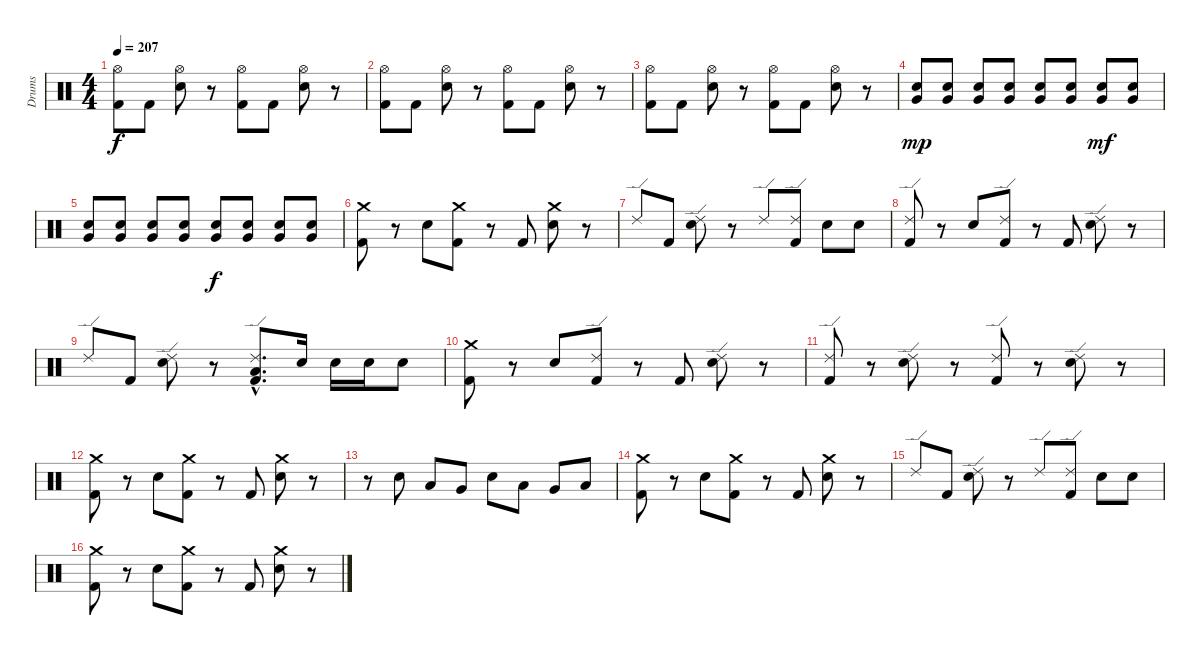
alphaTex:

\track ("Drums" "Drums") {instrument percussion}
\staff {score}
\articulation defaults
\ts (4 4)
\tempo 207
\clef neutral
\ks c
("Hi-Hat (open)" "Kick (hit) 2").8{dy f} "Kick (hit) 2".8 ("Hi-Hat (open)" "Snare (hit) 2").8 r.8 ("Hi-Hat (open)" "Kick (hit) 2").8 "Kick (hit) 2".8 ("Hi-Hat (open)" "Snare (hit) 2").8 r.8 |
("Hi-Hat (open)" "Kick (hit) 2").8 "Kick (hit) 2".8 ("Hi-Hat (open)" "Snare (hit) 2").8 r.8 ("Hi-Hat (open)" "Kick (hit) 2").8 "Kick (hit) 2".8 ("Hi-Hat (open)" "Snare (hit) 2").8 r.8 |
("Hi-Hat (open)" "Kick (hit) 2").8 "Kick (hit) 2".8 ("Hi-Hat (open)" "Snare (hit) 2").8 r.8 ("Hi-Hat (open)" "Kick (hit) 2").8 "Kick (hit) 2".8 ("Hi-Hat (open)" "Snare (hit) 2").8 r.8 |
("Snare (hit) 2" "Very Low Tom (hit)").8{dy mp} ("Snare (hit) 2" "Very Low Tom (hit)").8 ("Snare (hit) 2" "Very Low Tom (hit)").8 ("Snare (hit) 2" "Very Low Tom (hit)").8 ("Snare (hit) 2" "Very Low Tom (hit)").8 ("Snare (hit) 2" "Very Low Tom (hit)").8 ("Snare (hit) 2" "Very Low Tom (hit)").8{dy mf} ("Snare (hit) 2" "Very Low Tom (hit)").8 |
("Snare (hit) 2" "Very Low Tom (hit)").8 ("Snare (hit) 2" "Very Low Tom (hit)").8 ("Snare (hit) 2" "Very Low Tom (hit)").8 ("Snare (hit) 2" "Very Low Tom (hit)").8 ("Snare (hit) 2" "Very Low Tom (hit)").8{dy f} ("Snare (hit) 2" "Very Low Tom (hit)").8 ("Snare (hit) 2" "Very Low Tom (hit)").8 ("Snare (hit) 2" "Very Low Tom (hit)").8 |
("Crash medium (hit)" "Kick (hit) 2").8 r.8 "Snare (hit) 2".8 ("Crash medium (hit)" "Kick (hit) 2").8 r.8 "Kick (hit) 2".8 ("Crash medium (hit)" "Snare (hit) 2").8 r.8 |
"Ride (edge) 2".8 "Kick (hit) 2".8 ("Ride (edge) 2" "Snare (hit) 2").8 r.8 "Ride (edge) 2".8 ("Ride (edge) 2" "Kick (hit) 2").8 "Snare (hit) 2".8 "Snare (hit) 2".8 |
("Ride (edge) 2" "Kick (hit) 2").8 r.8 "Snare (hit) 2".8 ("Ride (edge) 2" "Kick (hit) 2").8 r.8 "Kick (hit) 2".8 ("Ride (edge) 2" "Snare (hit) 2").8 r.8 |
"Ride (edge) 2".8 "Kick (hit) 2".8 ("Ride (edge) 2" "Snare (hit) 2").8 r.8 ("Ride (edge) 2"{hac} "Low Tom (hit)"{hac} "Kick (hit) 2"{hac}).8{d} "Snare (hit) 2".16 "Snare (hit) 2".16 "Snare (hit) 2".16 "Snare (hit) 2".8 |
("Crash medium (hit)" "Kick (hit) 2").8 r.8 "Snare (hit) 2".8 ("Ride (edge) 2" "Kick (hit) 2").8 r.8 "Kick (hit) 2".8 ("Ride (edge) 2" "Snare (hit) 2").8 r.8 |
("Ride (edge) 2" "Kick (hit) 2").8 r.8 ("Ride (edge) 2" "Snare (hit) 2").8 r.8 ("Ride (edge) 2" "Kick (hit) 2").8 r.8 ("Ride (edge) 2" "Snare (hit) 2").8 r.8 |
("Crash medium (hit)" "Kick (hit) 2").8 r.8 "Snare (hit) 2".8 ("Crash medium (hit)" "Kick (hit) 2").8 r.8 "Kick (hit) 2".8 ("Crash medium (hit)" "Snare (hit) 2").8 r.8 |
r.8 "Snare (hit) 2".8 "Low Tom (hit)".8 "Very Low Tom (hit)".8 "Snare (hit) 2".8 "Low Tom (hit)".8 "Very Low Tom (hit)".8 "Low Floor Tom (hit)".8 |
("Crash medium (hit)" "Kick (hit) 2").8 r.8 "Snare (hit) 2".8 ("Crash medium (hit)" "Kick (hit) 2").8 r.8 "Kick (hit) 2".8 ("Crash medium (hit)" "Snare (hit) 2").8 r.8 |
"Ride (edge) 2".8 "Kick (hit) 2".8 ("Ride (edge) 2" "Snare (hit) 2").8 r.8 "Ride (edge) 2".8 ("Ride (edge) 2" "Kick (hit) 2").8 "Snare (hit) 2".8 "Snare (hit) 2".8 |
("Crash medium (hit)" "Kick (hit) 2").8 r.8 "Snare (hit) 2".8 ("Crash medium (hit)" "Kick (hit) 2").8 r.8 "Kick (hit) 2".8 ("Crash medium (hit)" "Snare (hit) 2").8 r.8
